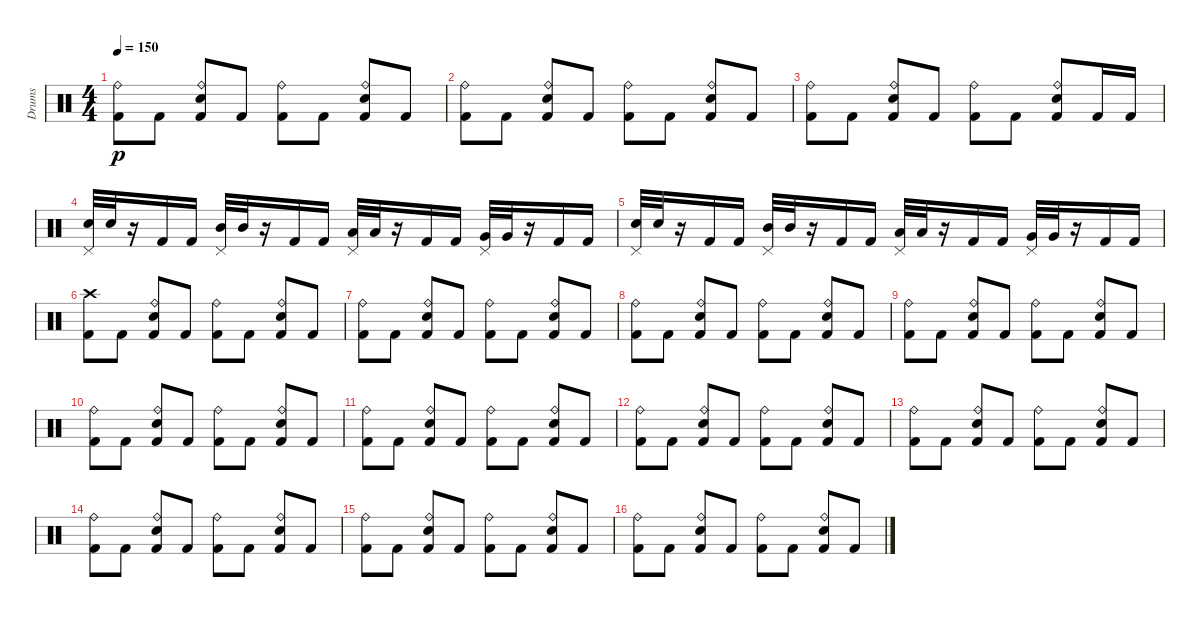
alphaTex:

\track ("Drums" "Drums") {instrument percussion}
\staff {score}
\articulation defaults
\ts (4 4)
\tempo 150
\clef neutral
\ks c
("Kick (hit) 2" "Ride (bell)").8{dy p} "Kick (hit) 2".8 ("Kick (hit) 2" "Snare (hit) 2" "Ride (bell)").8 "Kick (hit) 2".8 ("Kick (hit) 2" "Ride (bell)").8 "Kick (hit) 2".8 ("Kick (hit) 2" "Snare (hit) 2" "Ride (bell)").8 "Kick (hit) 2".8 |
("Kick (hit) 2" "Ride (bell)").8 "Kick (hit) 2".8 ("Kick (hit) 2" "Snare (hit) 2" "Ride (bell)").8 "Kick (hit) 2".8 ("Kick (hit) 2" "Ride (bell)").8 "Kick (hit) 2".8 ("Kick (hit) 2" "Snare (hit) 2" "Ride (bell)").8 "Kick (hit) 2".8 |
("Kick (hit) 2" "Ride (bell)").8 "Kick (hit) 2".8 ("Kick (hit) 2" "Snare (hit) 2" "Ride (bell)").8 "Kick (hit) 2".8 ("Kick (hit) 2" "Ride (bell)").8 "Kick (hit) 2".8 ("Kick (hit) 2" "Snare (hit) 2" "Ride (bell)").8 "Kick (hit) 2".16 "Kick (hit) 2".16 |
("Snare (hit) 2" "Pedal Hi-Hat (hit)").32 "Snare (hit) 2".32 r.16 "Kick (hit) 2".16 "Kick (hit) 2".16 ("Mid Tom (hit)" "Pedal Hi-Hat (hit)").32 "Mid Tom (hit)".32 r.16 "Kick (hit) 2".16 "Kick (hit) 2".16 ("Low Tom (hit)" "Pedal Hi-Hat (hit)").32 "Low Tom (hit)".32 r.16 "Kick (hit) 2".16 "Kick (hit) 2".16 ("Very Low Tom (hit)" "Pedal Hi-Hat (hit)").32 "Very Low Tom (hit)".32 r.16 "Kick (hit) 2".16 "Kick (hit) 2".16 |
("Snare (hit) 2" "Pedal Hi-Hat (hit)").32 "Snare (hit) 2".32 r.16 "Kick (hit) 2".16 "Kick (hit) 2".16 ("Mid Tom (hit)" "Pedal Hi-Hat (hit)").32 "Mid Tom (hit)".32 r.16 "Kick (hit) 2".16 "Kick (hit) 2".16 ("Low Tom (hit)" "Pedal Hi-Hat (hit)").32 "Low Tom (hit)".32 r.16 "Kick (hit) 2".16 "Kick (hit) 2".16 ("Very Low Tom (hit)" "Pedal Hi-Hat (hit)").32 "Very Low Tom (hit)".32 r.16 "Kick (hit) 2".16 "Kick (hit) 2".16 |
("Kick (hit) 2" "Crash high (hit)").8 "Kick (hit) 2".8 ("Kick (hit) 2" "Snare (hit) 2" "Ride (bell)").8 "Kick (hit) 2".8 ("Kick (hit) 2" "Ride (bell)").8 "Kick (hit) 2".8 ("Kick (hit) 2" "Snare (hit) 2" "Ride (bell)").8 "Kick (hit) 2".8 |
("Kick (hit) 2" "Ride (bell)").8 "Kick (hit) 2".8 ("Kick (hit) 2" "Snare (hit) 2" "Ride (bell)").8 "Kick (hit) 2".8 ("Kick (hit) 2" "Ride (bell)").8 "Kick (hit) 2".8 ("Kick (hit) 2" "Snare (hit) 2" "Ride (bell)").8 "Kick (hit) 2".8 |
("Kick (hit) 2" "Ride (bell)").8 "Kick (hit) 2".8 ("Kick (hit) 2" "Snare (hit) 2" "Ride (bell)").8 "Kick (hit) 2".8 ("Kick (hit) 2" "Ride (bell)").8 "Kick (hit) 2".8 ("Kick (hit) 2" "Snare (hit) 2" "Ride (bell)").8 "Kick (hit) 2".8 |
("Kick (hit) 2" "Ride (bell)").8 "Kick (hit) 2".8 ("Kick (hit) 2" "Snare (hit) 2" "Ride (bell)").8 "Kick (hit) 2".8 ("Kick (hit) 2" "Ride (bell)").8 "Kick (hit) 2".8 ("Kick (hit) 2" "Snare (hit) 2" "Ride (bell)").8 "Kick (hit) 2".8 |
("Kick (hit) 2" "Ride (bell)").8 "Kick (hit) 2".8 ("Kick (hit) 2" "Snare (hit) 2" "Ride (bell)").8 "Kick (hit) 2".8 ("Kick (hit) 2" "Ride (bell)").8 "Kick (hit) 2".8 ("Kick (hit) 2" "Snare (hit) 2" "Ride (bell)").8 "Kick (hit) 2".8 |
("Kick (hit) 2" "Ride (bell)").8 "Kick (hit) 2".8 ("Kick (hit) 2" "Snare (hit) 2" "Ride (bell)").8 "Kick (hit) 2".8 ("Kick (hit) 2" "Ride (bell)").8 "Kick (hit) 2".8 ("Kick (hit) 2" "Snare (hit) 2" "Ride (bell)").8 "Kick (hit) 2".8 |
("Kick (hit) 2" "Ride (bell)").8 "Kick (hit) 2".8 ("Kick (hit) 2" "Snare (hit) 2" "Ride (bell)").8 "Kick (hit) 2".8 ("Kick (hit) 2" "Ride (bell)").8 "Kick (hit) 2".8 ("Kick (hit) 2" "Snare (hit) 2" "Ride (bell)").8 "Kick (hit) 2".8 |
("Kick (hit) 2" "Ride (bell)").8 "Kick (hit) 2".8 ("Kick (hit) 2" "Snare (hit) 2" "Ride (bell)").8 "Kick (hit) 2".8 ("Kick (hit) 2" "Ride (bell)").8 "Kick (hit) 2".8 ("Kick (hit) 2" "Snare (hit) 2" "Ride (bell)").8 "Kick (hit) 2".8 |
("Kick (hit) 2" "Ride (bell)").8 "Kick (hit) 2".8 ("Kick (hit) 2" "Snare (hit) 2" "Ride (bell)").8 "Kick (hit) 2".8 ("Kick (hit) 2" "Ride (bell)").8 "Kick (hit) 2".8 ("Kick (hit) 2" "Snare (hit) 2" "Ride (bell)").8 "Kick (hit) 2".8 |
("Kick (hit) 2" "Ride (bell)").8 "Kick (hit) 2".8 ("Kick (hit) 2" "Snare (hit) 2" "Ride (bell)").8 "Kick (hit) 2".8 ("Kick (hit) 2" "Ride (bell)").8 "Kick (hit) 2".8 ("Kick (hit) 2" "Snare (hit) 2" "Ride (bell)").8 "Kick (hit) 2".8 |
("Kick (hit) 2" "Ride (bell)").8 "Kick (hit) 2".8 ("Kick (hit) 2" "Snare (hit) 2" "Ride (bell)").8 "Kick (hit) 2".8 ("Kick (hit) 2" "Ride (bell)").8 "Kick (hit) 2".8 ("Kick (hit) 2" "Snare (hit) 2" "Ride (bell)").8 "Kick (hit) 2".8
